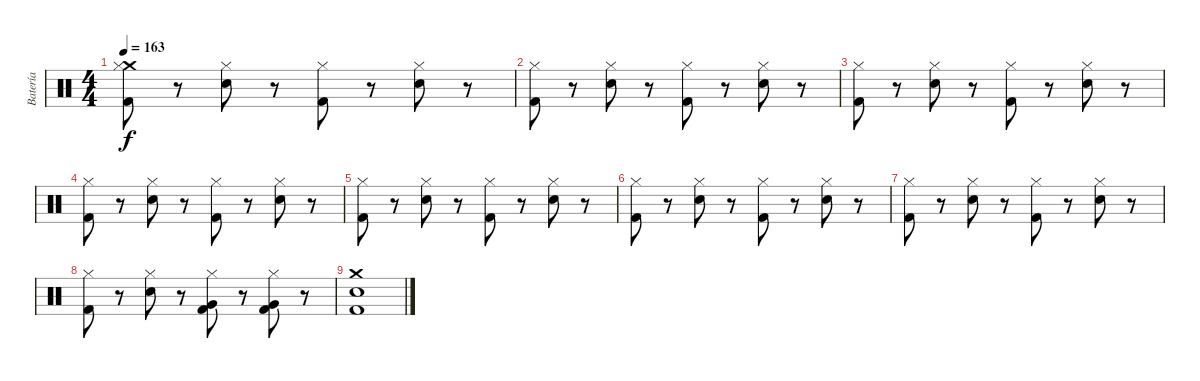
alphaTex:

\track ("Batería" "Batería") {instrument percussion}
\staff {score}
\articulation defaults
\ts (4 4)
\tempo 163
\clef neutral
\ks c
("Crash medium (hit)" "Hi-Hat (closed)" "Kick (hit) 2").8{dy f} r.8 ("Hi-Hat (closed)" "Snare (hit) 2").8 r.8 ("Hi-Hat (closed)" "Kick (hit) 2").8 r.8 ("Hi-Hat (closed)" "Snare (hit) 2").8 r.8 |
("Hi-Hat (closed)" "Kick (hit) 2").8 r.8 ("Hi-Hat (closed)" "Snare (hit) 2").8 r.8 ("Hi-Hat (closed)" "Kick (hit) 2").8 r.8 ("Hi-Hat (closed)" "Snare (hit) 2").8 r.8 |
("Hi-Hat (closed)" "Kick (hit) 2").8 r.8 ("Hi-Hat (closed)" "Snare (hit) 2").8 r.8 ("Hi-Hat (closed)" "Kick (hit) 2").8 r.8 ("Hi-Hat (closed)" "Snare (hit) 2").8 r.8 |
("Hi-Hat (closed)" "Kick (hit) 2").8 r.8 ("Hi-Hat (closed)" "Snare (hit) 2").8 r.8 ("Hi-Hat (closed)" "Kick (hit) 2").8 r.8 ("Hi-Hat (closed)" "Snare (hit) 2").8 r.8 |
("Hi-Hat (closed)" "Kick (hit) 2").8 r.8 ("Hi-Hat (closed)" "Snare (hit) 2").8 r.8 ("Hi-Hat (closed)" "Kick (hit) 2").8 r.8 ("Hi-Hat (closed)" "Snare (hit) 2").8 r.8 |
("Hi-Hat (closed)" "Kick (hit) 2").8 r.8 ("Hi-Hat (closed)" "Snare (hit) 2").8 r.8 ("Hi-Hat (closed)" "Kick (hit) 2").8 r.8 ("Hi-Hat (closed)" "Snare (hit) 2").8 r.8 |
("Hi-Hat (closed)" "Kick (hit) 2").8 r.8 ("Hi-Hat (closed)" "Snare (hit) 2").8 r.8 ("Hi-Hat (closed)" "Kick (hit) 2").8 r.8 ("Hi-Hat (closed)" "Snare (hit) 2").8 r.8 |
("Hi-Hat (closed)" "Kick (hit) 2").8 r.8 ("Hi-Hat (closed)" "Snare (hit) 2").8 r.8 ("Hi-Hat (closed)" "Very Low Tom (hit)" "Kick (hit) 2").8 r.8 ("Hi-Hat (closed)" "Very Low Tom (hit)" "Kick (hit) 2").8 r.8 |
("Crash medium (hit)" "Snare (hit) 2" "Kick (hit) 2").1
